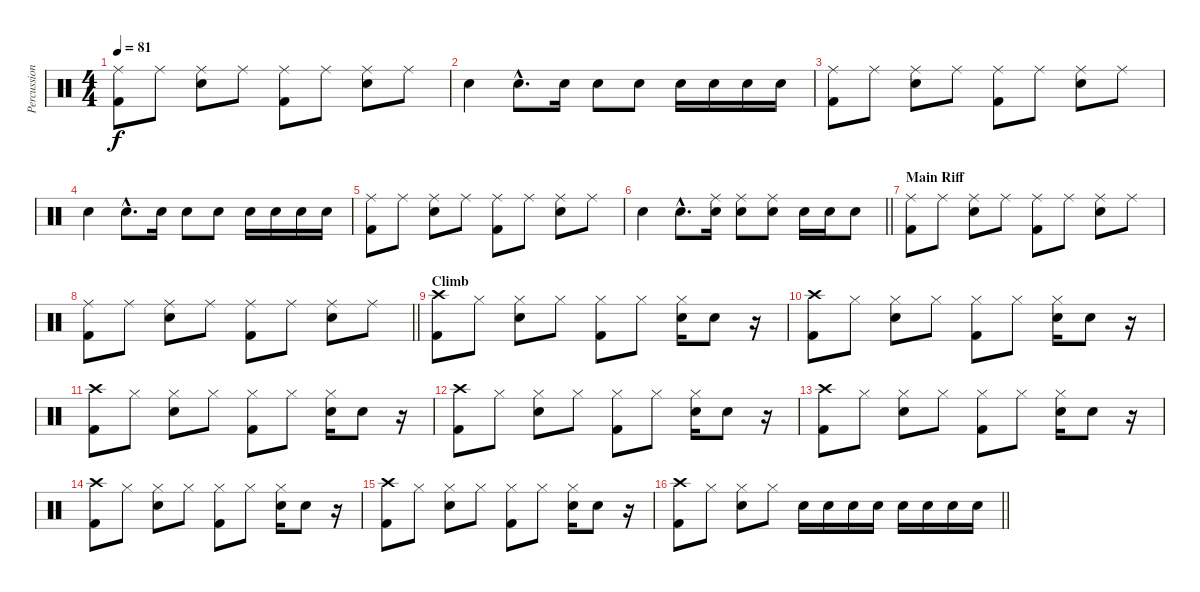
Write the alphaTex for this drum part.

\track ("Percussion" "Percussion") {instrument percussion}
\staff {score}
\articulation defaults
\ts (4 4)
\tempo 81
\clef neutral
\ks c
("Ride (middle)" "Kick (hit) 2").8{dy f} "Ride (middle)".8 ("Ride (middle)" "Snare (hit) 2").8 "Ride (middle)".8 ("Ride (middle)" "Kick (hit) 2").8 "Ride (middle)".8 ("Ride (middle)" "Snare (hit) 2").8 "Ride (middle)".8 |
"Snare (hit) 2".4 "Snare (hit) 2"{hac}.8{d} "Snare (hit) 2".16 "Snare (hit) 2".8 "Snare (hit) 2".8 "Snare (hit) 2".16 "Snare (hit) 2".16 "Snare (hit) 2".16 "Snare (hit) 2".16 |
("Ride (middle)" "Kick (hit) 2").8 "Ride (middle)".8 ("Ride (middle)" "Snare (hit) 2").8 "Ride (middle)".8 ("Ride (middle)" "Kick (hit) 2").8 "Ride (middle)".8 ("Ride (middle)" "Snare (hit) 2").8 "Ride (middle)".8 |
"Snare (hit) 2".4 "Snare (hit) 2"{hac}.8{d} "Snare (hit) 2".16 "Snare (hit) 2".8 "Snare (hit) 2".8 "Snare (hit) 2".16 "Snare (hit) 2".16 "Snare (hit) 2".16 "Snare (hit) 2".16 |
("Ride (middle)" "Kick (hit) 2").8 "Ride (middle)".8 ("Ride (middle)" "Snare (hit) 2").8 "Ride (middle)".8 ("Ride (middle)" "Kick (hit) 2").8 "Ride (middle)".8 ("Ride (middle)" "Snare (hit) 2").8 "Ride (middle)".8 |
\barLineRight lightlight "Snare (hit) 2".4 "Snare (hit) 2"{hac}.8{d}
("Ride (middle)" "Snare (hit) 2").16 ("Ride (middle)" "Snare (hit) 2").8 ("Ride (middle)" "Snare (hit) 2").8 "Snare (hit) 2".16 "Snare (hit) 2".16 "Snare (hit) 2".8 |
\section ("" "Main Riff")
("Ride (middle)" "Kick (hit) 2").8 "Ride (middle)".8 ("Ride (middle)" "Snare (hit) 2").8 "Ride (middle)".8 ("Ride (middle)" "Kick (hit) 2").8 "Ride (middle)".8 ("Ride (middle)" "Snare (hit) 2").8 "Ride (middle)".8 |
\barLineRight lightlight
("Ride (middle)" "Kick (hit) 2").8 "Ride (middle)".8 ("Ride (middle)" "Snare (hit) 2").8 "Ride (middle)".8 ("Ride (middle)" "Kick (hit) 2").8 "Ride (middle)".8 ("Ride (middle)" "Snare (hit) 2").8 "Ride (middle)".8 |
\section ("" "Climb")
("Crash high (hit)" "Kick (hit) 2").8 "Hi-Hat (closed)".8 ("Hi-Hat (closed)" "Snare (hit) 2").8 "Hi-Hat (closed)".8 ("Hi-Hat (closed)" "Kick (hit) 2").8 "Hi-Hat (closed)".8 ("Hi-Hat (closed)" "Snare (hit) 2").16 "Snare (hit) 2".8 r.16 |
("Crash high (hit)" "Kick (hit) 2").8 "Hi-Hat (closed)".8 ("Hi-Hat (closed)" "Snare (hit) 2").8 "Hi-Hat (closed)".8 ("Hi-Hat (closed)" "Kick (hit) 2").8 "Hi-Hat (closed)".8 ("Hi-Hat (closed)" "Snare (hit) 2").16 "Snare (hit) 2".8 r.16 |
("Crash high (hit)" "Kick (hit) 2").8 "Hi-Hat (closed)".8 ("Hi-Hat (closed)" "Snare (hit) 2").8 "Hi-Hat (closed)".8 ("Hi-Hat (closed)" "Kick (hit) 2").8 "Hi-Hat (closed)".8 ("Hi-Hat (closed)" "Snare (hit) 2").16 "Snare (hit) 2".8 r.16 |
("Crash high (hit)" "Kick (hit) 2").8 "Hi-Hat (closed)".8 ("Hi-Hat (closed)" "Snare (hit) 2").8 "Hi-Hat (closed)".8 ("Hi-Hat (closed)" "Kick (hit) 2").8 "Hi-Hat (closed)".8 ("Hi-Hat (closed)" "Snare (hit) 2").16 "Snare (hit) 2".8 r.16 |
("Crash high (hit)" "Kick (hit) 2").8 "Hi-Hat (closed)".8 ("Hi-Hat (closed)" "Snare (hit) 2").8 "Hi-Hat (closed)".8 ("Hi-Hat (closed)" "Kick (hit) 2").8 "Hi-Hat (closed)".8 ("Hi-Hat (closed)" "Snare (hit) 2").16 "Snare (hit) 2".8 r.16 |
("Crash high (hit)" "Kick (hit) 2").8 "Hi-Hat (closed)".8 ("Hi-Hat (closed)" "Snare (hit) 2").8 "Hi-Hat (closed)".8 ("Hi-Hat (closed)" "Kick (hit) 2").8 "Hi-Hat (closed)".8 ("Hi-Hat (closed)" "Snare (hit) 2").16 "Snare (hit) 2".8 r.16 |
("Crash high (hit)" "Kick (hit) 2").8 "Hi-Hat (closed)".8 ("Hi-Hat (closed)" "Snare (hit) 2").8 "Hi-Hat (closed)".8 ("Hi-Hat (closed)" "Kick (hit) 2").8 "Hi-Hat (closed)".8 ("Hi-Hat (closed)" "Snare (hit) 2").16 "Snare (hit) 2".8 r.16 |
\barLineRight lightlight
("Crash high (hit)" "Kick (hit) 2").8 "Hi-Hat (closed)".8 ("Hi-Hat (closed)" "Snare (hit) 2").8 "Hi-Hat (closed)".8 "Snare (hit) 2".16 "Snare (hit) 2".16 "Snare (hit) 2".16 "Snare (hit) 2".16 "Snare (hit) 2".16 "Snare (hit) 2".16 "Snare (hit) 2".16 "Snare (hit) 2".16
